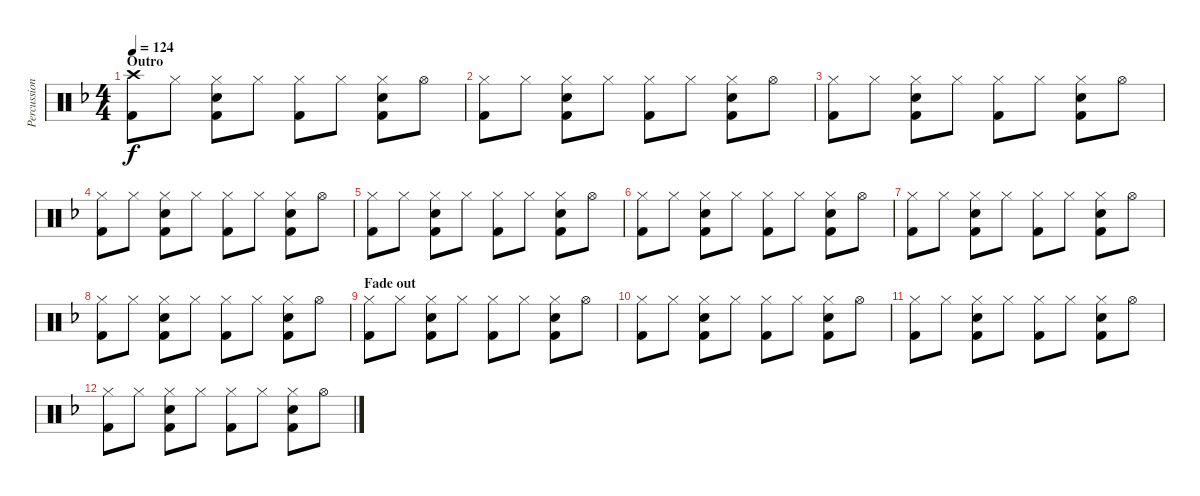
\track ("Percussion" "Percussion") {instrument percussion}
\staff {score}
\articulation defaults
\ts (4 4)
\section ("" "Outro")
\tempo 124
\clef neutral
\ks f
("Crash high (hit)" "Kick (hit) 2").8{dy f} "Hi-Hat (closed)".8 ("Hi-Hat (closed)" "Electric Snare (hit)" "Kick (hit) 2").8 "Hi-Hat (closed)".8 ("Hi-Hat (closed)" "Kick (hit) 2").8 "Hi-Hat (closed)".8 ("Hi-Hat (closed)" "Electric Snare (hit)" "Kick (hit) 2").8 "Hi-Hat (open)".8 |
("Hi-Hat (closed)" "Kick (hit) 2").8 "Hi-Hat (closed)".8 ("Hi-Hat (closed)" "Electric Snare (hit)" "Kick (hit) 2").8 "Hi-Hat (closed)".8 ("Hi-Hat (closed)" "Kick (hit) 2").8 "Hi-Hat (closed)".8 ("Hi-Hat (closed)" "Electric Snare (hit)" "Kick (hit) 2").8 "Hi-Hat (open)".8 |
("Hi-Hat (closed)" "Kick (hit) 2").8 "Hi-Hat (closed)".8 ("Hi-Hat (closed)" "Electric Snare (hit)" "Kick (hit) 2").8 "Hi-Hat (closed)".8 ("Hi-Hat (closed)" "Kick (hit) 2").8 "Hi-Hat (closed)".8 ("Hi-Hat (closed)" "Electric Snare (hit)" "Kick (hit) 2").8 "Hi-Hat (open)".8 |
("Hi-Hat (closed)" "Kick (hit) 2").8 "Hi-Hat (closed)".8 ("Hi-Hat (closed)" "Electric Snare (hit)" "Kick (hit) 2").8 "Hi-Hat (closed)".8 ("Hi-Hat (closed)" "Kick (hit) 2").8 "Hi-Hat (closed)".8 ("Hi-Hat (closed)" "Electric Snare (hit)" "Kick (hit) 2").8 "Hi-Hat (open)".8 |
("Hi-Hat (closed)" "Kick (hit) 2").8 "Hi-Hat (closed)".8 ("Hi-Hat (closed)" "Electric Snare (hit)" "Kick (hit) 2").8 "Hi-Hat (closed)".8 ("Hi-Hat (closed)" "Kick (hit) 2").8 "Hi-Hat (closed)".8 ("Hi-Hat (closed)" "Electric Snare (hit)" "Kick (hit) 2").8 "Hi-Hat (open)".8 |
("Hi-Hat (closed)" "Kick (hit) 2").8 "Hi-Hat (closed)".8 ("Hi-Hat (closed)" "Electric Snare (hit)" "Kick (hit) 2").8 "Hi-Hat (closed)".8 ("Hi-Hat (closed)" "Kick (hit) 2").8 "Hi-Hat (closed)".8 ("Hi-Hat (closed)" "Electric Snare (hit)" "Kick (hit) 2").8 "Hi-Hat (open)".8 |
("Hi-Hat (closed)" "Kick (hit) 2").8 "Hi-Hat (closed)".8 ("Hi-Hat (closed)" "Electric Snare (hit)" "Kick (hit) 2").8 "Hi-Hat (closed)".8 ("Hi-Hat (closed)" "Kick (hit) 2").8 "Hi-Hat (closed)".8 ("Hi-Hat (closed)" "Electric Snare (hit)" "Kick (hit) 2").8 "Hi-Hat (open)".8 |
("Hi-Hat (closed)" "Kick (hit) 2").8 "Hi-Hat (closed)".8 ("Hi-Hat (closed)" "Electric Snare (hit)" "Kick (hit) 2").8 "Hi-Hat (closed)".8 ("Hi-Hat (closed)" "Kick (hit) 2").8 "Hi-Hat (closed)".8 ("Hi-Hat (closed)" "Electric Snare (hit)" "Kick (hit) 2").8 "Hi-Hat (open)".8 |
\section ("" "Fade out")
("Hi-Hat (closed)" "Kick (hit) 2").8 "Hi-Hat (closed)".8 ("Hi-Hat (closed)" "Electric Snare (hit)" "Kick (hit) 2").8 "Hi-Hat (closed)".8 ("Hi-Hat (closed)" "Kick (hit) 2").8 "Hi-Hat (closed)".8 ("Hi-Hat (closed)" "Electric Snare (hit)" "Kick (hit) 2").8 "Hi-Hat (open)".8 |
("Hi-Hat (closed)" "Kick (hit) 2").8 "Hi-Hat (closed)".8 ("Hi-Hat (closed)" "Electric Snare (hit)" "Kick (hit) 2").8 "Hi-Hat (closed)".8 ("Hi-Hat (closed)" "Kick (hit) 2").8 "Hi-Hat (closed)".8 ("Hi-Hat (closed)" "Electric Snare (hit)" "Kick (hit) 2").8 "Hi-Hat (open)".8 |
("Hi-Hat (closed)" "Kick (hit) 2").8 "Hi-Hat (closed)".8 ("Hi-Hat (closed)" "Electric Snare (hit)" "Kick (hit) 2").8 "Hi-Hat (closed)".8 ("Hi-Hat (closed)" "Kick (hit) 2").8 "Hi-Hat (closed)".8 ("Hi-Hat (closed)" "Electric Snare (hit)" "Kick (hit) 2").8 "Hi-Hat (open)".8 |
("Hi-Hat (closed)" "Kick (hit) 2").8 "Hi-Hat (closed)".8 ("Hi-Hat (closed)" "Electric Snare (hit)" "Kick (hit) 2").8 "Hi-Hat (closed)".8 ("Hi-Hat (closed)" "Kick (hit) 2").8 "Hi-Hat (closed)".8 ("Hi-Hat (closed)" "Electric Snare (hit)" "Kick (hit) 2").8 "Hi-Hat (open)".8
